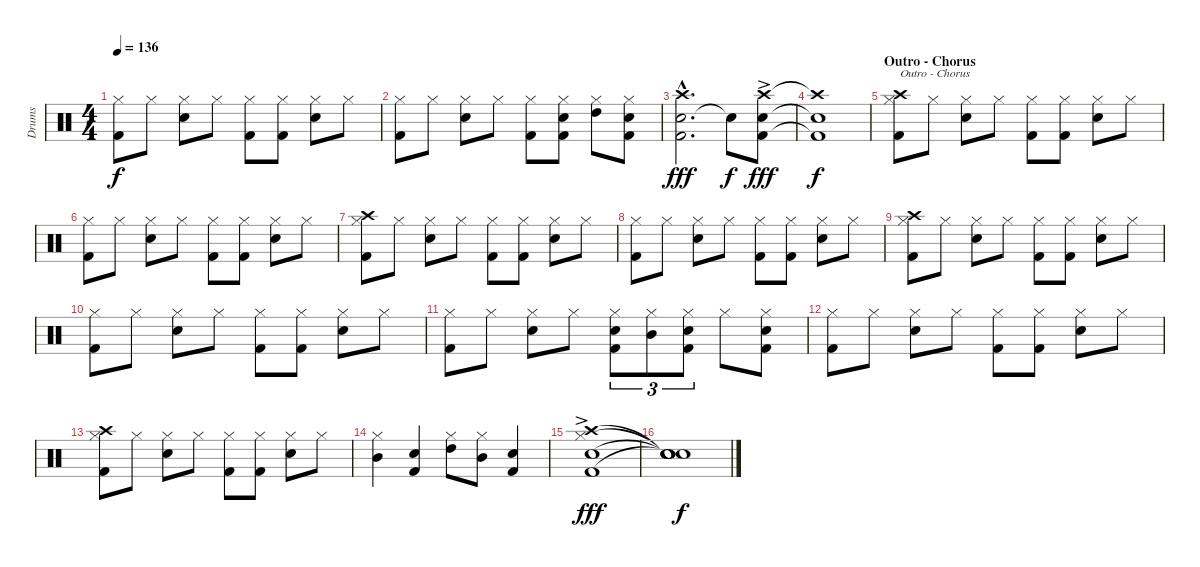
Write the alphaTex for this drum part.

\track ("Drums" "Drums") {instrument percussion}
\staff {score}
\articulation defaults
\ts (4 4)
\tempo 136
\clef neutral
\ks c
("Hi-Hat (closed)" "Kick (hit) 2").8{dy f} "Hi-Hat (closed)".8 ("Snare (hit) 2" "Hi-Hat (closed)").8 "Hi-Hat (closed)".8 ("Hi-Hat (closed)" "Kick (hit) 2").8 ("Hi-Hat (closed)" "Kick (hit) 2").8 ("Snare (hit) 2" "Hi-Hat (closed)").8 "Hi-Hat (closed)".8 |
("Hi-Hat (closed)" "Kick (hit) 2").8 "Hi-Hat (closed)".8 ("Snare (hit) 2" "Hi-Hat (closed)").8 "Hi-Hat (closed)".8 ("Hi-Hat (closed)" "Kick (hit) 2").8 ("Snare (hit) 2" "Hi-Hat (closed)" "Kick (hit) 2").8 ("High Tom (hit)" "Hi-Hat (closed)").8 ("Snare (hit) 2" "Hi-Hat (closed)" "Kick (hit) 2").8 |
("Snare (hit) 2"{hac} "Crash high (hit)"{hac} "Kick (hit) 2"{hac}).2{d dy fff volume 9} "Snare (hit)"{t}.8{dy f} ("Snare (hit) 2"{ac} "Crash high (hit)"{ac} "Kick (hit) 2"{ac}).8{dy fff} |
("Snare (hit) 2"{t} "Crash high (hit)"{t} "Kick (hit) 2"{t}).1{dy f} |
\section ("" "Outro - Chorus")
("Crash high (hit)" "Hi-Hat (closed)" "Kick (hit) 2").8{txt "Outro - Chorus" volume 13} "Hi-Hat (closed)".8 ("Snare (hit) 2" "Hi-Hat (closed)").8 "Hi-Hat (closed)".8 ("Hi-Hat (closed)" "Kick (hit) 2").8 ("Hi-Hat (closed)" "Kick (hit) 2").8 ("Snare (hit) 2" "Hi-Hat (closed)").8 "Hi-Hat (closed)".8 |
("Hi-Hat (closed)" "Kick (hit) 2").8 "Hi-Hat (closed)".8 ("Snare (hit) 2" "Hi-Hat (closed)").8 "Hi-Hat (closed)".8 ("Hi-Hat (closed)" "Kick (hit) 2").8 ("Hi-Hat (closed)" "Kick (hit) 2").8 ("Snare (hit) 2" "Hi-Hat (closed)").8 "Hi-Hat (closed)".8 |
("Crash high (hit)" "Hi-Hat (closed)" "Kick (hit) 2").8 "Hi-Hat (closed)".8 ("Snare (hit) 2" "Hi-Hat (closed)").8 "Hi-Hat (closed)".8 ("Hi-Hat (closed)" "Kick (hit) 2").8 ("Hi-Hat (closed)" "Kick (hit) 2").8 ("Snare (hit) 2" "Hi-Hat (closed)").8 "Hi-Hat (closed)".8 |
("Hi-Hat (closed)" "Kick (hit) 2").8 "Hi-Hat (closed)".8 ("Snare (hit) 2" "Hi-Hat (closed)").8 "Hi-Hat (closed)".8 ("Hi-Hat (closed)" "Kick (hit) 2").8 ("Hi-Hat (closed)" "Kick (hit) 2").8 ("Snare (hit) 2" "Hi-Hat (closed)").8 "Hi-Hat (closed)".8 |
("Crash high (hit)" "Hi-Hat (closed)" "Kick (hit) 2").8 "Hi-Hat (closed)".8 ("Snare (hit) 2" "Hi-Hat (closed)").8 "Hi-Hat (closed)".8 ("Hi-Hat (closed)" "Kick (hit) 2").8 ("Hi-Hat (closed)" "Kick (hit) 2").8 ("Snare (hit) 2" "Hi-Hat (closed)").8 "Hi-Hat (closed)".8 |
("Hi-Hat (closed)" "Kick (hit) 2").8 "Hi-Hat (closed)".8 ("Snare (hit) 2" "Hi-Hat (closed)").8 "Hi-Hat (closed)".8 ("Hi-Hat (closed)" "Kick (hit) 2").8 ("Hi-Hat (closed)" "Kick (hit) 2").8 ("Snare (hit) 2" "Hi-Hat (closed)").8 "Hi-Hat (closed)".8 |
("Hi-Hat (closed)" "Kick (hit) 2").8 "Hi-Hat (closed)".8 ("Snare (hit) 2" "Hi-Hat (closed)").8 "Hi-Hat (closed)".8 ("Snare (hit) 2" "Hi-Hat (closed)" "Kick (hit) 2").8{tu (3 2)} ("Mid Tom (hit)" "Hi-Hat (closed)").8{tu (3 2)} ("Snare (hit) 2" "Hi-Hat (closed)" "Kick (hit) 2").8{tu (3 2)} "Hi-Hat (closed)".8 ("Snare (hit) 2" "Hi-Hat (closed)" "Kick (hit) 2").8 |
("Hi-Hat (closed)" "Kick (hit) 2").8 "Hi-Hat (closed)".8 ("Snare (hit) 2" "Hi-Hat (closed)").8 "Hi-Hat (closed)".8 ("Hi-Hat (closed)" "Kick (hit) 2").8 ("Hi-Hat (closed)" "Kick (hit) 2").8 ("Snare (hit) 2" "Hi-Hat (closed)").8 "Hi-Hat (closed)".8 |
("Crash high (hit)" "Hi-Hat (closed)" "Kick (hit) 2").8 "Hi-Hat (closed)".8 ("Snare (hit) 2" "Hi-Hat (closed)").8 "Hi-Hat (closed)".8 ("Hi-Hat (closed)" "Kick (hit) 2").8 ("Hi-Hat (closed)" "Kick (hit) 2").8 ("Snare (hit) 2" "Hi-Hat (closed)").8 "Hi-Hat (closed)".8 |
("Mid Tom (hit)" "Hi-Hat (closed)").4 ("Snare (hit) 2" "Kick (hit) 2").4 ("High Tom (hit)" "Hi-Hat (closed)").8 ("Mid Tom (hit)" "Hi-Hat (closed)").8 ("Snare (hit) 2" "Kick (hit) 2").4 |
("Crash high (hit)"{ac} "Snare (hit) 2"{ac} "Hi-Hat (closed)" "Kick (hit) 2").1{dy fff} |
("Snare (hit)"{t} "Snare (hit)"{t} "Snare (hit)"{t} "Snare (hit)"{t}).1{dy f}
